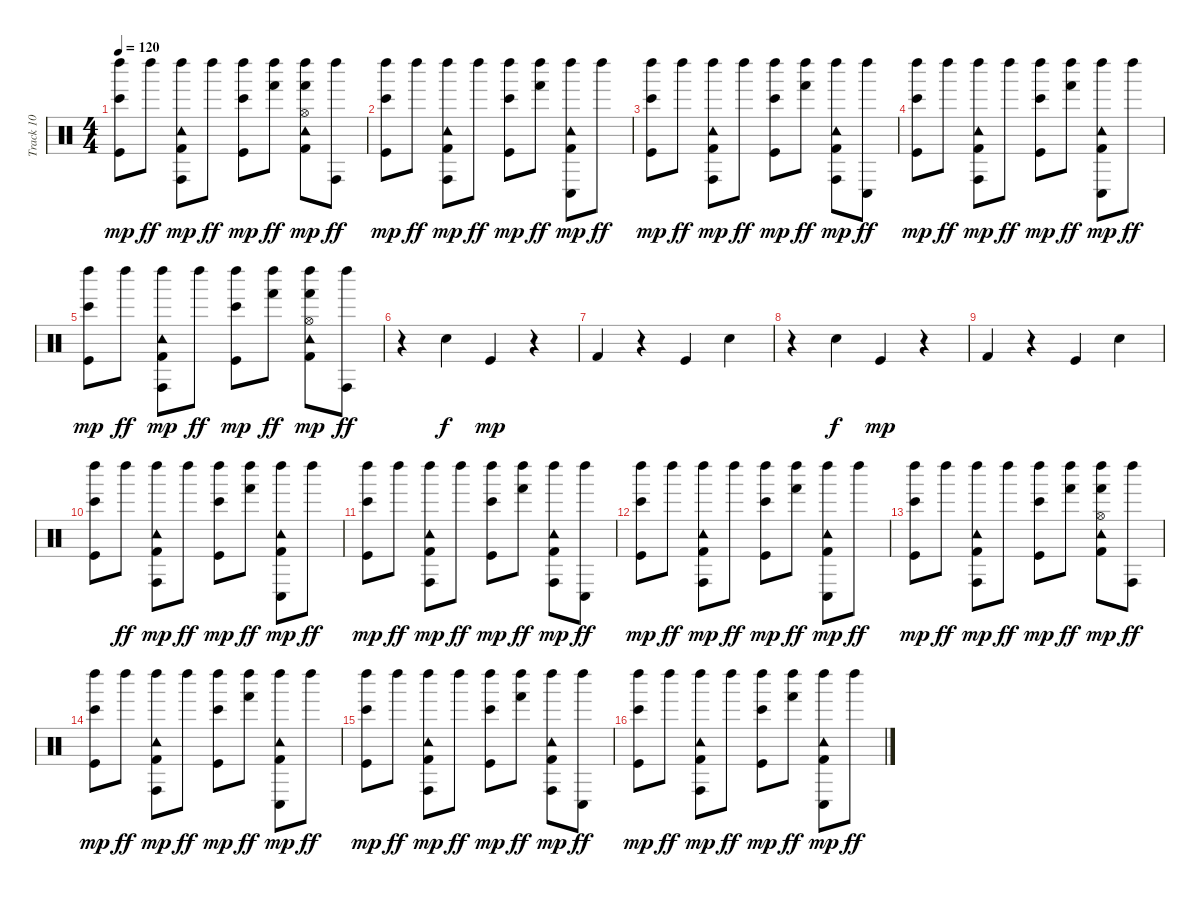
\track ("Track 10" "Track 10") {instrument percussion}
\staff {score}
\articulation defaults
\ts (4 4)
\tempo 120
\clef neutral
\ks c
("Bongo High (hit)" "Left Maraca (hit)" "Kick (hit)").8{dy mp} "Left Maraca (hit)".8{dy ff} ("Conga high (hit)" "Tambourine (hit)" "Left Maraca (hit)" "Kick (hit) 2").8{dy mp} "Left Maraca (hit)".8{dy ff} ("Bongo High (hit)" "Left Maraca (hit)" "Kick (hit)").8{dy mp} ("Hand (hit)" "Left Maraca (hit)").8{dy ff} ("Hand (hit)" "Hi-Hat (open)" "Tambourine (hit)" "Left Maraca (hit)" "Kick (hit) 2").8{dy mp} ("Conga high (hit)" "Left Maraca (hit)").8{dy ff} |
("Bongo High (hit)" "Left Maraca (hit)" "Kick (hit)").8{dy mp} "Left Maraca (hit)".8{dy ff} ("Conga high (hit)" "Tambourine (hit)" "Left Maraca (hit)" "Kick (hit) 2").8{dy mp} "Left Maraca (hit)".8{dy ff} ("Bongo High (hit)" "Left Maraca (hit)" "Kick (hit)").8{dy mp} ("Hand (hit)" "Left Maraca (hit)").8{dy ff} ("Conga low (hit)" "Tambourine (hit)" "Left Maraca (hit)" "Kick (hit) 2").8{dy mp} "Left Maraca (hit)".8{dy ff} |
("Bongo High (hit)" "Left Maraca (hit)" "Kick (hit)").8{dy mp} "Left Maraca (hit)".8{dy ff} ("Conga high (hit)" "Tambourine (hit)" "Left Maraca (hit)" "Kick (hit) 2").8{dy mp} "Left Maraca (hit)".8{dy ff} ("Bongo High (hit)" "Left Maraca (hit)" "Kick (hit)").8{dy mp} ("Hand (hit)" "Left Maraca (hit)").8{dy ff} ("Conga high (hit)" "Tambourine (hit)" "Left Maraca (hit)" "Kick (hit) 2").8{dy mp} ("Conga low (hit)" "Left Maraca (hit)").8{dy ff} |
("Bongo High (hit)" "Left Maraca (hit)" "Kick (hit)").8{dy mp} "Left Maraca (hit)".8{dy ff} ("Conga high (hit)" "Tambourine (hit)" "Left Maraca (hit)" "Kick (hit) 2").8{dy mp} "Left Maraca (hit)".8{dy ff} ("Bongo High (hit)" "Left Maraca (hit)" "Kick (hit)").8{dy mp} ("Hand (hit)" "Left Maraca (hit)").8{dy ff} ("Conga low (hit)" "Tambourine (hit)" "Left Maraca (hit)" "Kick (hit) 2").8{dy mp} "Left Maraca (hit)".8{dy ff} |
("Bongo High (hit)" "Left Maraca (hit)" "Kick (hit)").8{dy mp} "Left Maraca (hit)".8{dy ff} ("Conga high (hit)" "Tambourine (hit)" "Left Maraca (hit)" "Kick (hit) 2").8{dy mp} "Left Maraca (hit)".8{dy ff} ("Bongo High (hit)" "Left Maraca (hit)" "Kick (hit)").8{dy mp} ("Hand (hit)" "Left Maraca (hit)").8{dy ff} ("Hand (hit)" "Hi-Hat (open)" "Tambourine (hit)" "Left Maraca (hit)" "Kick (hit) 2").8{dy mp} ("Conga high (hit)" "Left Maraca (hit)").8{dy ff} |
r.4 "Electric Snare (hit)".4{dy f} "Kick (hit)".4{dy mp} r.4 |
"Kick (hit) 2".4 r.4 "Kick (hit)".4 "Electric Snare (hit)".4 |
r.4 "Electric Snare (hit)".4{dy f} "Kick (hit)".4{dy mp} r.4 |
"Kick (hit) 2".4 r.4 "Kick (hit)".4 "Electric Snare (hit)".4 |
("Bongo High (hit)" "Left Maraca (hit)" "Kick (hit)").8 "Left Maraca (hit)".8{dy ff} ("Conga high (hit)" "Tambourine (hit)" "Left Maraca (hit)" "Kick (hit) 2").8{dy mp} "Left Maraca (hit)".8{dy ff} ("Bongo High (hit)" "Left Maraca (hit)" "Kick (hit)").8{dy mp} ("Hand (hit)" "Left Maraca (hit)").8{dy ff} ("Conga low (hit)" "Tambourine (hit)" "Left Maraca (hit)" "Kick (hit) 2").8{dy mp} "Left Maraca (hit)".8{dy ff} |
("Bongo High (hit)" "Left Maraca (hit)" "Kick (hit)").8{dy mp} "Left Maraca (hit)".8{dy ff} ("Conga high (hit)" "Tambourine (hit)" "Left Maraca (hit)" "Kick (hit) 2").8{dy mp} "Left Maraca (hit)".8{dy ff} ("Bongo High (hit)" "Left Maraca (hit)" "Kick (hit)").8{dy mp} ("Hand (hit)" "Left Maraca (hit)").8{dy ff} ("Conga high (hit)" "Tambourine (hit)" "Left Maraca (hit)" "Kick (hit) 2").8{dy mp} ("Conga low (hit)" "Left Maraca (hit)").8{dy ff} |
("Bongo High (hit)" "Left Maraca (hit)" "Kick (hit)").8{dy mp} "Left Maraca (hit)".8{dy ff} ("Conga high (hit)" "Tambourine (hit)" "Left Maraca (hit)" "Kick (hit) 2").8{dy mp} "Left Maraca (hit)".8{dy ff} ("Bongo High (hit)" "Left Maraca (hit)" "Kick (hit)").8{dy mp} ("Hand (hit)" "Left Maraca (hit)").8{dy ff} ("Conga low (hit)" "Tambourine (hit)" "Left Maraca (hit)" "Kick (hit) 2").8{dy mp} "Left Maraca (hit)".8{dy ff} |
("Bongo High (hit)" "Left Maraca (hit)" "Kick (hit)").8{dy mp} "Left Maraca (hit)".8{dy ff} ("Conga high (hit)" "Tambourine (hit)" "Left Maraca (hit)" "Kick (hit) 2").8{dy mp} "Left Maraca (hit)".8{dy ff} ("Bongo High (hit)" "Left Maraca (hit)" "Kick (hit)").8{dy mp} ("Hand (hit)" "Left Maraca (hit)").8{dy ff} ("Hand (hit)" "Hi-Hat (open)" "Tambourine (hit)" "Left Maraca (hit)" "Kick (hit) 2").8{dy mp} ("Conga high (hit)" "Left Maraca (hit)").8{dy ff} |
("Bongo High (hit)" "Left Maraca (hit)" "Kick (hit)").8{dy mp} "Left Maraca (hit)".8{dy ff} ("Conga high (hit)" "Tambourine (hit)" "Left Maraca (hit)" "Kick (hit) 2").8{dy mp} "Left Maraca (hit)".8{dy ff} ("Bongo High (hit)" "Left Maraca (hit)" "Kick (hit)").8{dy mp} ("Hand (hit)" "Left Maraca (hit)").8{dy ff} ("Conga low (hit)" "Tambourine (hit)" "Left Maraca (hit)" "Kick (hit) 2").8{dy mp} "Left Maraca (hit)".8{dy ff} |
("Bongo High (hit)" "Left Maraca (hit)" "Kick (hit)").8{dy mp} "Left Maraca (hit)".8{dy ff} ("Conga high (hit)" "Tambourine (hit)" "Left Maraca (hit)" "Kick (hit) 2").8{dy mp} "Left Maraca (hit)".8{dy ff} ("Bongo High (hit)" "Left Maraca (hit)" "Kick (hit)").8{dy mp} ("Hand (hit)" "Left Maraca (hit)").8{dy ff} ("Conga high (hit)" "Tambourine (hit)" "Left Maraca (hit)" "Kick (hit) 2").8{dy mp} ("Conga low (hit)" "Left Maraca (hit)").8{dy ff} |
("Bongo High (hit)" "Left Maraca (hit)" "Kick (hit)").8{dy mp} "Left Maraca (hit)".8{dy ff} ("Conga high (hit)" "Tambourine (hit)" "Left Maraca (hit)" "Kick (hit) 2").8{dy mp} "Left Maraca (hit)".8{dy ff} ("Bongo High (hit)" "Left Maraca (hit)" "Kick (hit)").8{dy mp} ("Hand (hit)" "Left Maraca (hit)").8{dy ff} ("Conga low (hit)" "Tambourine (hit)" "Left Maraca (hit)" "Kick (hit) 2").8{dy mp} "Left Maraca (hit)".8{dy ff}
